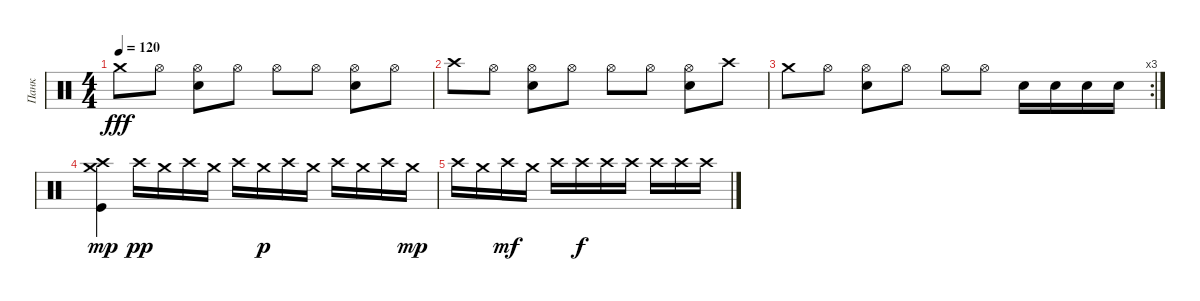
\track ("Панк" "Панк") {instrument percussion}
\staff {score}
\articulation defaults
\ts (4 4)
\tempo 120
\clef neutral
\ks c "Crash medium (hit)".8{dy fff} "Hi-Hat (open)".8
("Hi-Hat (open)" "Electric Snare (hit)").8 "Hi-Hat (open)".8 "Hi-Hat (open)".8 "Hi-Hat (open)".8 ("Hi-Hat (open)" "Electric Snare (hit)").8 "Hi-Hat (open)".8 |
"Crash high (hit)".8 "Hi-Hat (open)".8 ("Hi-Hat (open)" "Electric Snare (hit)").8 "Hi-Hat (open)".8 "Hi-Hat (open)".8 "Hi-Hat (open)".8 ("Hi-Hat (open)" "Electric Snare (hit)").8 "Crash high (hit)".8 |
\rc 3 "Crash medium (hit)".8 "Hi-Hat (open)".8
("Hi-Hat (open)" "Electric Snare (hit)").8 "Hi-Hat (open)".8 "Hi-Hat (open)".8 "Hi-Hat (open)".8 "Electric Snare (hit)".16 "Electric Snare (hit)".16 "Electric Snare (hit)".16 "Electric Snare (hit)".16 |
("Crash high (hit)" "Crash medium (hit)" "Kick (hit)").4{dy mp} "Crash high (hit)".16{dy pp} "Crash medium (hit)".16 "Crash high (hit)".16 "Crash medium (hit)".16 "Crash high (hit)".16 "Crash medium (hit)".16{dy p} "Crash high (hit)".16 "Crash medium (hit)".16 "Crash high (hit)".16 "Crash medium (hit)".16 "Crash high (hit)".16 "Crash medium (hit)".16{dy mp} |
"Crash high (hit)".16 "Crash medium (hit)".16 "Crash high (hit)".16{dy mf} "Crash medium (hit)".16 "Crash high (hit)".16 "Crash high (hit)".16{dy f} "Crash high (hit)".16 "Crash high (hit)".16 "Crash high (hit)".16 "Crash high (hit)".16 "Crash high (hit)".16
